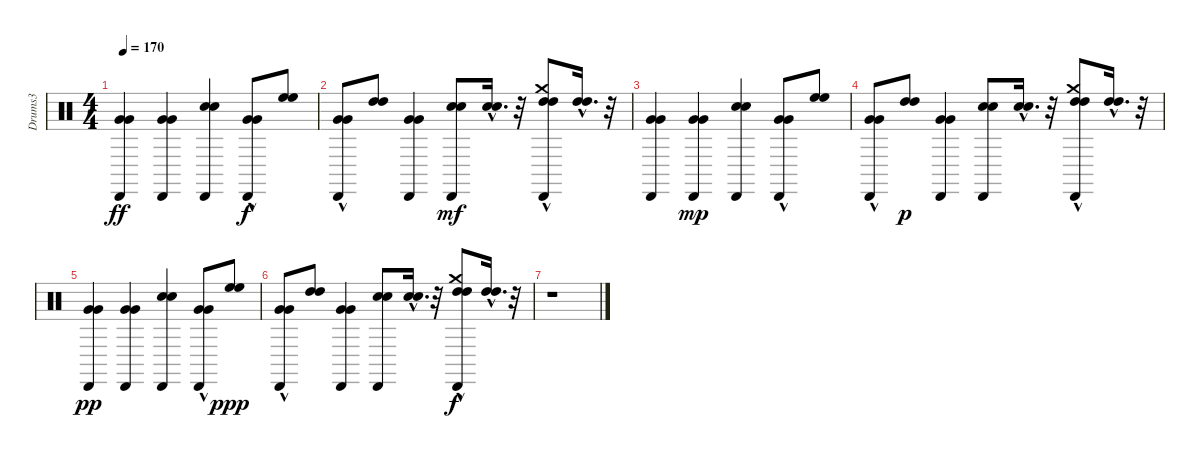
\track ("Drums3" "Drums3") {instrument percussion}
\staff {score}
\articulation defaults
\ts (4 4)
\tempo 170
\clef neutral
\ks c
("Very Low Tom (hit)" "Very Low Tom (hit)" "Cabasa (hit)").4{dy ff} ("Very Low Tom (hit)" "Very Low Tom (hit)" "Cabasa (hit)").4 ("Electric Snare (hit)" "Electric Snare (hit)" "Cabasa (hit)").4 ("Very Low Tom (hit)"{hac} "Very Low Tom (hit)"{hac} "Cabasa (hit)").8{dy f} ("High Floor Tom (hit)" "High Floor Tom (hit)").8 |
("Very Low Tom (hit)"{hac} "Very Low Tom (hit)"{hac} "Cabasa (hit)").8 ("High Tom (hit)" "High Tom (hit)").8 ("Very Low Tom (hit)" "Very Low Tom (hit)" "Cabasa (hit)").4 ("Electric Snare (hit)" "Electric Snare (hit)" "Cabasa (hit)").8{dy mf} ("Electric Snare (hit)"{hac} "Electric Snare (hit)"{hac}).16{d} r.32 ("High Tom (hit)"{hac} "High Tom (hit)"{hac} "Crash medium (hit)" "Cabasa (hit)").8 ("High Tom (hit)"{hac} "High Tom (hit)"{hac}).16{d} r.32 |
("Very Low Tom (hit)" "Very Low Tom (hit)" "Cabasa (hit)").4 ("Very Low Tom (hit)" "Very Low Tom (hit)" "Cabasa (hit)").4{dy mp} ("Electric Snare (hit)" "Electric Snare (hit)" "Cabasa (hit)").4 ("Very Low Tom (hit)"{hac} "Very Low Tom (hit)"{hac} "Cabasa (hit)").8 ("High Floor Tom (hit)" "High Floor Tom (hit)").8 |
("Very Low Tom (hit)"{hac} "Very Low Tom (hit)"{hac} "Cabasa (hit)").8 ("High Tom (hit)" "High Tom (hit)").8{dy p} ("Very Low Tom (hit)" "Very Low Tom (hit)" "Cabasa (hit)").4 ("Electric Snare (hit)" "Electric Snare (hit)" "Cabasa (hit)").8 ("Electric Snare (hit)"{hac} "Electric Snare (hit)"{hac}).16{d} r.32 ("High Tom (hit)"{hac} "High Tom (hit)"{hac} "Crash medium (hit)" "Cabasa (hit)").8 ("High Tom (hit)"{hac} "High Tom (hit)"{hac}).16{d} r.32 |
("Very Low Tom (hit)" "Very Low Tom (hit)" "Cabasa (hit)").4{dy pp} ("Very Low Tom (hit)" "Very Low Tom (hit)" "Cabasa (hit)").4 ("Electric Snare (hit)" "Electric Snare (hit)" "Cabasa (hit)").4 ("Very Low Tom (hit)"{hac} "Very Low Tom (hit)"{hac} "Cabasa (hit)").8 ("High Floor Tom (hit)" "High Floor Tom (hit)").8{dy ppp} |
("Very Low Tom (hit)"{hac} "Very Low Tom (hit)"{hac} "Cabasa (hit)").8 ("High Tom (hit)" "High Tom (hit)").8 ("Very Low Tom (hit)" "Very Low Tom (hit)" "Cabasa (hit)").4 ("Electric Snare (hit)" "Electric Snare (hit)" "Cabasa (hit)").8 ("Electric Snare (hit)"{hac} "Electric Snare (hit)"{hac}).16{d} r.32 ("High Tom (hit)"{hac} "High Tom (hit)"{hac} "Crash medium (hit)" "Cabasa (hit)").8{dy f} ("High Tom (hit)"{hac} "High Tom (hit)"{hac}).16{d} r.32 |
r.1
